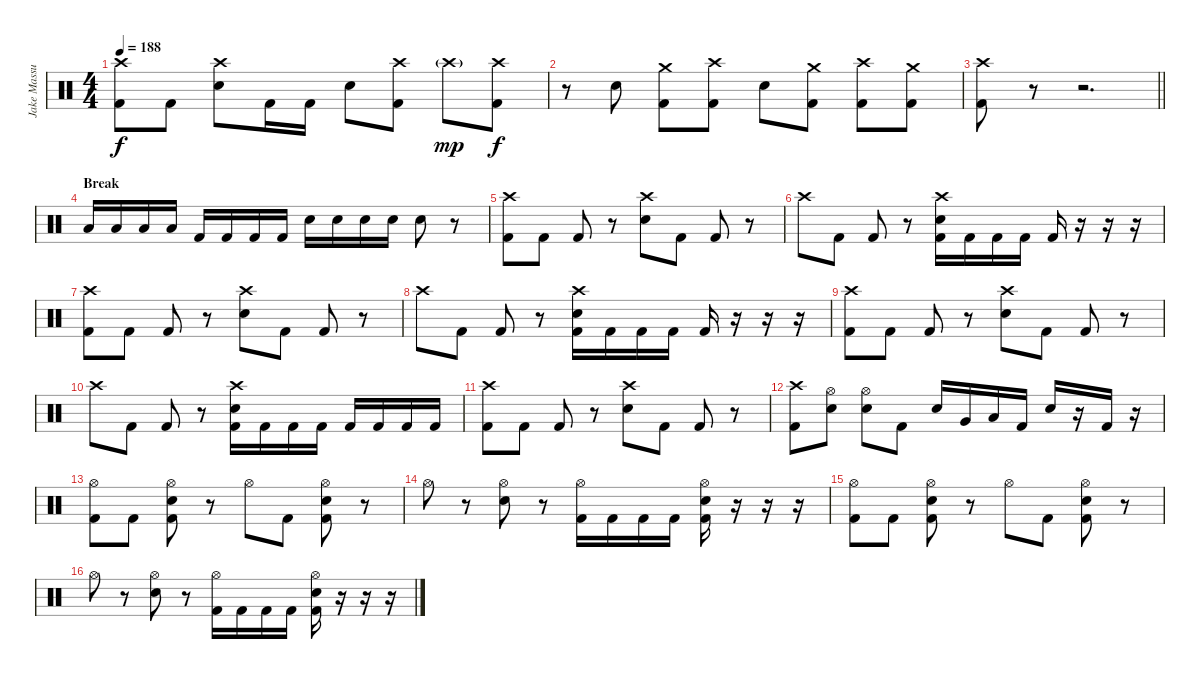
\track ("Jake Massucco" "Jake Massu") {instrument percussion}
\staff {score}
\articulation defaults
\ts (4 4)
\tempo 188
\clef neutral
\ks c
("Crash high (hit)" "Kick (hit) 2").8{dy f} "Kick (hit) 2".8 ("Crash high (hit)" "Electric Snare (hit)").8 "Kick (hit) 2".16 "Kick (hit) 2".16 "Electric Snare (hit)".8 ("Crash high (hit)" "Kick (hit) 2").8 "Crash high (hit)"{g}.8{dy mp volume 0} ("Crash high (hit)" "Kick (hit) 2").8{dy f volume 16} |
r.8 "Electric Snare (hit)".8 ("Crash medium (hit)" "Kick (hit) 2").8 ("Crash high (hit)" "Kick (hit) 2").8 "Electric Snare (hit)".8 ("Crash medium (hit)" "Kick (hit) 2").8 ("Crash high (hit)" "Kick (hit) 2").8 ("Crash medium (hit)" "Kick (hit) 2").8 |
\barLineRight lightlight
("Crash high (hit)" "Kick (hit) 2").8 r.8 r.2{d} |
\section ("" "Break")
"Low Tom (hit)".16 "Low Tom (hit)".16 "Low Tom (hit)".16 "Low Tom (hit)".16 "Kick (hit) 2".16 "Kick (hit) 2".16 "Kick (hit) 2".16 "Kick (hit) 2".16 "Electric Snare (hit)".16 "Electric Snare (hit)".16 "Electric Snare (hit)".16 "Electric Snare (hit)".16 "Electric Snare (hit)".8 r.8 |
("Crash high (hit)" "Kick (hit) 2").8 "Kick (hit) 2".8 "Kick (hit) 2".8 r.8 ("Crash high (hit)" "Electric Snare (hit)").8 "Kick (hit) 2".8 "Kick (hit) 2".8 r.8 |
"Crash high (hit)".8 "Kick (hit) 2".8 "Kick (hit) 2".8 r.8 ("Crash high (hit)" "Electric Snare (hit)" "Kick (hit) 2").16 "Kick (hit) 2".16 "Kick (hit) 2".16 "Kick (hit) 2".16 "Kick (hit) 2".16 r.16 r.16 r.16 |
("Crash high (hit)" "Kick (hit) 2").8 "Kick (hit) 2".8 "Kick (hit) 2".8 r.8 ("Crash high (hit)" "Electric Snare (hit)").8 "Kick (hit) 2".8 "Kick (hit) 2".8 r.8 |
"Crash high (hit)".8 "Kick (hit) 2".8 "Kick (hit) 2".8 r.8 ("Crash high (hit)" "Electric Snare (hit)" "Kick (hit) 2").16 "Kick (hit) 2".16 "Kick (hit) 2".16 "Kick (hit) 2".16 "Kick (hit) 2".16 r.16 r.16 r.16 |
("Crash high (hit)" "Kick (hit) 2").8 "Kick (hit) 2".8 "Kick (hit) 2".8 r.8 ("Crash high (hit)" "Electric Snare (hit)").8 "Kick (hit) 2".8 "Kick (hit) 2".8 r.8 |
"Crash high (hit)".8 "Kick (hit) 2".8 "Kick (hit) 2".8 r.8 ("Crash high (hit)" "Electric Snare (hit)" "Kick (hit) 2").16 "Kick (hit) 2".16 "Kick (hit) 2".16 "Kick (hit) 2".16 "Kick (hit) 2".16 "Kick (hit) 2".16 "Kick (hit) 2".16 "Kick (hit) 2".16 |
("Crash high (hit)" "Kick (hit) 2").8 "Kick (hit) 2".8 "Kick (hit) 2".8 r.8 ("Crash high (hit)" "Electric Snare (hit)").8 "Kick (hit) 2".8 "Kick (hit) 2".8 r.8 |
("Crash high (hit)" "Kick (hit) 2").8 ("Hi-Hat (open)" "Electric Snare (hit)").8 ("Hi-Hat (open)" "Electric Snare (hit)").8 "Kick (hit) 2".8 "Electric Snare (hit)".16 "Very Low Tom (hit)".16 "Low Floor Tom (hit)".16 "Kick (hit) 2".16 "Electric Snare (hit)".16 r.16 "Kick (hit) 2".16 r.16 |
("Hi-Hat (open)" "Kick (hit) 2").8 "Kick (hit) 2".8 ("Hi-Hat (open)" "Electric Snare (hit)" "Kick (hit) 2").8 r.8 "Hi-Hat (open)".8 "Kick (hit) 2".8 ("Hi-Hat (open)" "Electric Snare (hit)" "Kick (hit) 2").8 r.8 |
"Hi-Hat (open)".8 r.8 ("Hi-Hat (open)" "Electric Snare (hit)").8 r.8 ("Hi-Hat (open)" "Kick (hit) 2").16 "Kick (hit) 2".16 "Kick (hit) 2".16 "Kick (hit) 2".16 ("Hi-Hat (open)" "Electric Snare (hit)" "Kick (hit) 2").16 r.16 r.16 r.16 |
("Hi-Hat (open)" "Kick (hit) 2").8 "Kick (hit) 2".8 ("Hi-Hat (open)" "Electric Snare (hit)" "Kick (hit) 2").8 r.8 "Hi-Hat (open)".8 "Kick (hit) 2".8 ("Hi-Hat (open)" "Electric Snare (hit)" "Kick (hit) 2").8 r.8 |
"Hi-Hat (open)".8 r.8 ("Hi-Hat (open)" "Electric Snare (hit)").8 r.8 ("Hi-Hat (open)" "Kick (hit) 2").16 "Kick (hit) 2".16 "Kick (hit) 2".16 "Kick (hit) 2".16 ("Hi-Hat (open)" "Electric Snare (hit)" "Kick (hit) 2").16 r.16 r.16 r.16
